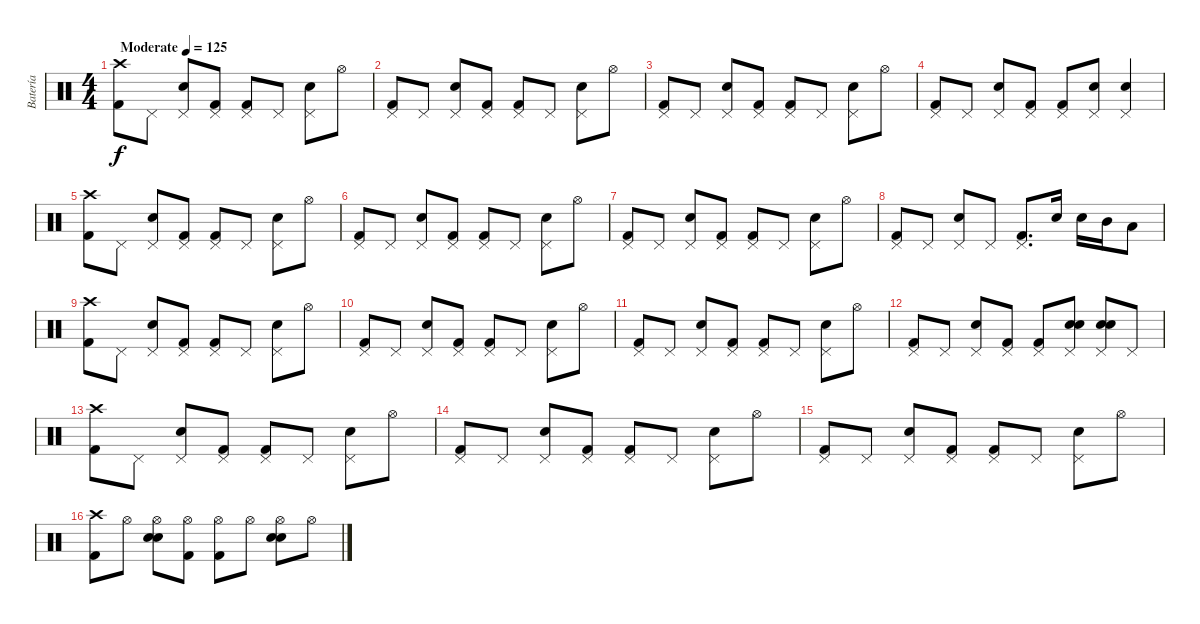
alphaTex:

\track ("Batería" "Batería") {instrument percussion}
\staff {score}
\articulation defaults
\ts (4 4)
\tempo (125 "Moderate")
\clef neutral
\ks c
("Kick (hit) 2" "Crash high (hit)").8{dy f} "Pedal Hi-Hat (hit)".8 ("Electric Snare (hit)" "Pedal Hi-Hat (hit)").8 ("Kick (hit) 2" "Pedal Hi-Hat (hit)").8 ("Kick (hit) 2" "Pedal Hi-Hat (hit)").8 "Pedal Hi-Hat (hit)".8 ("Electric Snare (hit)" "Pedal Hi-Hat (hit)").8 "Hi-Hat (open)".8 |
("Kick (hit) 2" "Pedal Hi-Hat (hit)").8 "Pedal Hi-Hat (hit)".8 ("Electric Snare (hit)" "Pedal Hi-Hat (hit)").8 ("Kick (hit) 2" "Pedal Hi-Hat (hit)").8 ("Kick (hit) 2" "Pedal Hi-Hat (hit)").8 "Pedal Hi-Hat (hit)".8 ("Electric Snare (hit)" "Pedal Hi-Hat (hit)").8 "Hi-Hat (open)".8 |
("Kick (hit) 2" "Pedal Hi-Hat (hit)").8 "Pedal Hi-Hat (hit)".8 ("Electric Snare (hit)" "Pedal Hi-Hat (hit)").8 ("Kick (hit) 2" "Pedal Hi-Hat (hit)").8 ("Kick (hit) 2" "Pedal Hi-Hat (hit)").8 "Pedal Hi-Hat (hit)".8 ("Electric Snare (hit)" "Pedal Hi-Hat (hit)").8 "Hi-Hat (open)".8 |
("Kick (hit) 2" "Pedal Hi-Hat (hit)").8 "Pedal Hi-Hat (hit)".8 ("Electric Snare (hit)" "Pedal Hi-Hat (hit)").8 ("Kick (hit) 2" "Pedal Hi-Hat (hit)").8 ("Kick (hit) 2" "Pedal Hi-Hat (hit)").8 ("Electric Snare (hit)" "Pedal Hi-Hat (hit)").8 ("Electric Snare (hit)" "Pedal Hi-Hat (hit)").4 |
("Kick (hit) 2" "Crash high (hit)").8 "Pedal Hi-Hat (hit)".8 ("Electric Snare (hit)" "Pedal Hi-Hat (hit)").8 ("Kick (hit) 2" "Pedal Hi-Hat (hit)").8 ("Kick (hit) 2" "Pedal Hi-Hat (hit)").8 "Pedal Hi-Hat (hit)".8 ("Electric Snare (hit)" "Pedal Hi-Hat (hit)").8 "Hi-Hat (open)".8 |
("Kick (hit) 2" "Pedal Hi-Hat (hit)").8 "Pedal Hi-Hat (hit)".8 ("Electric Snare (hit)" "Pedal Hi-Hat (hit)").8 ("Kick (hit) 2" "Pedal Hi-Hat (hit)").8 ("Kick (hit) 2" "Pedal Hi-Hat (hit)").8 "Pedal Hi-Hat (hit)".8 ("Electric Snare (hit)" "Pedal Hi-Hat (hit)").8 "Hi-Hat (open)".8 |
("Kick (hit) 2" "Pedal Hi-Hat (hit)").8 "Pedal Hi-Hat (hit)".8 ("Electric Snare (hit)" "Pedal Hi-Hat (hit)").8 ("Kick (hit) 2" "Pedal Hi-Hat (hit)").8 ("Kick (hit) 2" "Pedal Hi-Hat (hit)").8 "Pedal Hi-Hat (hit)".8 ("Electric Snare (hit)" "Pedal Hi-Hat (hit)").8 "Hi-Hat (open)".8 |
("Kick (hit) 2" "Pedal Hi-Hat (hit)").8 "Pedal Hi-Hat (hit)".8 ("Electric Snare (hit)" "Pedal Hi-Hat (hit)").8 "Pedal Hi-Hat (hit)".8 ("Kick (hit) 2" "Pedal Hi-Hat (hit)").8{d} "Electric Snare (hit)".16 "Electric Snare (hit)".16 "Mid Tom (hit)".16 "Low Tom (hit)".8 |
("Kick (hit) 2" "Crash high (hit)").8 "Pedal Hi-Hat (hit)".8 ("Electric Snare (hit)" "Pedal Hi-Hat (hit)").8 ("Kick (hit) 2" "Pedal Hi-Hat (hit)").8 ("Kick (hit) 2" "Pedal Hi-Hat (hit)").8 "Pedal Hi-Hat (hit)".8 ("Electric Snare (hit)" "Pedal Hi-Hat (hit)").8 "Hi-Hat (open)".8 |
("Kick (hit) 2" "Pedal Hi-Hat (hit)").8 "Pedal Hi-Hat (hit)".8 ("Electric Snare (hit)" "Pedal Hi-Hat (hit)").8 ("Kick (hit) 2" "Pedal Hi-Hat (hit)").8 ("Kick (hit) 2" "Pedal Hi-Hat (hit)").8 "Pedal Hi-Hat (hit)".8 ("Electric Snare (hit)" "Pedal Hi-Hat (hit)").8 "Hi-Hat (open)".8 |
("Kick (hit) 2" "Pedal Hi-Hat (hit)").8 "Pedal Hi-Hat (hit)".8 ("Electric Snare (hit)" "Pedal Hi-Hat (hit)").8 ("Kick (hit) 2" "Pedal Hi-Hat (hit)").8 ("Kick (hit) 2" "Pedal Hi-Hat (hit)").8 "Pedal Hi-Hat (hit)".8 ("Electric Snare (hit)" "Pedal Hi-Hat (hit)").8 "Hi-Hat (open)".8 |
("Kick (hit) 2" "Pedal Hi-Hat (hit)").8 "Pedal Hi-Hat (hit)".8 ("Electric Snare (hit)" "Pedal Hi-Hat (hit)").8 ("Kick (hit) 2" "Pedal Hi-Hat (hit)").8 ("Kick (hit) 2" "Pedal Hi-Hat (hit)").8 ("Electric Snare (hit)" "Pedal Hi-Hat (hit)" "Snare (hit) 2").8 ("Electric Snare (hit)" "Pedal Hi-Hat (hit)" "Snare (hit) 2").8 "Pedal Hi-Hat (hit)".8 |
("Kick (hit) 2" "Crash high (hit)").8 "Pedal Hi-Hat (hit)".8 ("Electric Snare (hit)" "Pedal Hi-Hat (hit)").8 ("Kick (hit) 2" "Pedal Hi-Hat (hit)").8 ("Kick (hit) 2" "Pedal Hi-Hat (hit)").8 "Pedal Hi-Hat (hit)".8 ("Electric Snare (hit)" "Pedal Hi-Hat (hit)").8 "Hi-Hat (open)".8 |
("Kick (hit) 2" "Pedal Hi-Hat (hit)").8 "Pedal Hi-Hat (hit)".8 ("Electric Snare (hit)" "Pedal Hi-Hat (hit)").8 ("Kick (hit) 2" "Pedal Hi-Hat (hit)").8 ("Kick (hit) 2" "Pedal Hi-Hat (hit)").8 "Pedal Hi-Hat (hit)".8 ("Electric Snare (hit)" "Pedal Hi-Hat (hit)").8 "Hi-Hat (open)".8 |
("Kick (hit) 2" "Pedal Hi-Hat (hit)").8 "Pedal Hi-Hat (hit)".8 ("Electric Snare (hit)" "Pedal Hi-Hat (hit)").8 ("Kick (hit) 2" "Pedal Hi-Hat (hit)").8 ("Kick (hit) 2" "Pedal Hi-Hat (hit)").8 "Pedal Hi-Hat (hit)".8 ("Electric Snare (hit)" "Pedal Hi-Hat (hit)").8 "Hi-Hat (open)".8 |
("Kick (hit) 2" "Crash high (hit)").8 "Hi-Hat (open)".8 ("Electric Snare (hit)" "Hi-Hat (open)" "Snare (hit) 2").8 ("Kick (hit) 2" "Hi-Hat (open)").8 ("Kick (hit) 2" "Hi-Hat (open)").8 "Hi-Hat (open)".8 ("Electric Snare (hit)" "Hi-Hat (open)" "Snare (hit) 2").8 "Hi-Hat (open)".8
